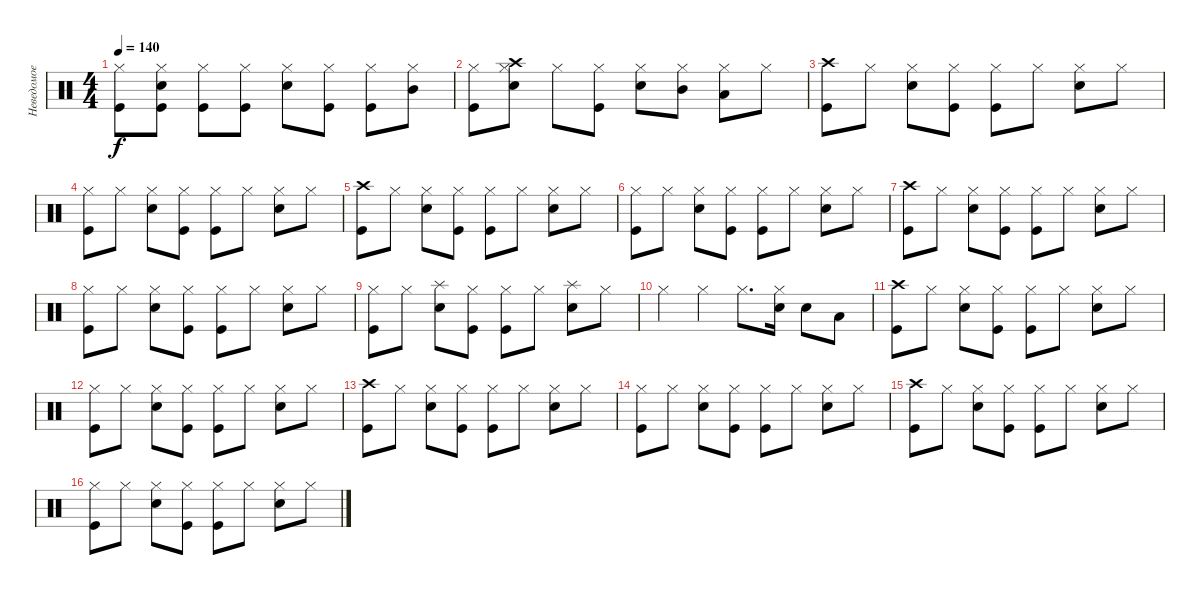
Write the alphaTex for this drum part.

\track ("Неведомое существо" "Неведомое ") {instrument percussion}
\staff {score}
\articulation defaults
\ts (4 4)
\tempo 140
\clef neutral
\ks c
("Hi-Hat (closed)" "Kick (hit)").8{dy f} ("Hi-Hat (closed)" "Snare (hit) 2" "Kick (hit)").8 ("Hi-Hat (closed)" "Kick (hit)").8 ("Hi-Hat (closed)" "Kick (hit)").8 ("Hi-Hat (closed)" "Snare (hit) 2").8 ("Hi-Hat (closed)" "Kick (hit)").8 ("Hi-Hat (closed)" "Kick (hit)").8 ("Hi-Hat (closed)" "Mid Tom (hit)").8 |
("Hi-Hat (closed)" "Kick (hit)").8 ("Hi-Hat (closed)" "Crash high (hit)" "Snare (hit) 2").8 "Hi-Hat (closed)".8 ("Hi-Hat (closed)" "Kick (hit)").8 ("Hi-Hat (closed)" "Snare (hit) 2").8 ("Hi-Hat (closed)" "Mid Tom (hit)").8 ("Hi-Hat (closed)" "Low Tom (hit)").8 "Hi-Hat (closed)".8 |
("Crash high (hit)" "Kick (hit)").8 "Hi-Hat (closed)".8 ("Hi-Hat (closed)" "Snare (hit) 2").8 ("Hi-Hat (closed)" "Kick (hit)").8 ("Hi-Hat (closed)" "Kick (hit)").8 "Hi-Hat (closed)".8 ("Hi-Hat (closed)" "Snare (hit) 2").8 "Hi-Hat (closed)".8 |
("Hi-Hat (closed)" "Kick (hit)").8 "Hi-Hat (closed)".8 ("Hi-Hat (closed)" "Snare (hit) 2").8 ("Hi-Hat (closed)" "Kick (hit)").8 ("Hi-Hat (closed)" "Kick (hit)").8 "Hi-Hat (closed)".8 ("Hi-Hat (closed)" "Snare (hit) 2").8 "Hi-Hat (closed)".8 |
("Crash high (hit)" "Kick (hit)").8 "Hi-Hat (closed)".8 ("Hi-Hat (closed)" "Snare (hit) 2").8 ("Hi-Hat (closed)" "Kick (hit)").8 ("Hi-Hat (closed)" "Kick (hit)").8 "Hi-Hat (closed)".8 ("Hi-Hat (closed)" "Snare (hit) 2").8 "Hi-Hat (closed)".8 |
("Hi-Hat (closed)" "Kick (hit)").8 "Hi-Hat (closed)".8 ("Hi-Hat (closed)" "Snare (hit) 2").8 ("Hi-Hat (closed)" "Kick (hit)").8 ("Hi-Hat (closed)" "Kick (hit)").8 "Hi-Hat (closed)".8 ("Hi-Hat (closed)" "Snare (hit) 2").8 "Hi-Hat (closed)".8 |
("Crash high (hit)" "Kick (hit)").8 "Hi-Hat (closed)".8 ("Hi-Hat (closed)" "Snare (hit) 2").8 ("Hi-Hat (closed)" "Kick (hit)").8 ("Hi-Hat (closed)" "Kick (hit)").8 "Hi-Hat (closed)".8 ("Hi-Hat (closed)" "Snare (hit) 2").8 "Hi-Hat (closed)".8 |
("Hi-Hat (closed)" "Kick (hit)").8 "Hi-Hat (closed)".8 ("Hi-Hat (closed)" "Snare (hit) 2").8 ("Hi-Hat (closed)" "Kick (hit)").8 ("Hi-Hat (closed)" "Kick (hit)").8 "Hi-Hat (closed)".8 ("Hi-Hat (closed)" "Snare (hit) 2").8 "Hi-Hat (closed)".8 |
("Hi-Hat (closed)" "Kick (hit)").8 "Hi-Hat (closed)".8 ("Splash (hit)" "Snare (hit) 2").8 ("Hi-Hat (closed)" "Kick (hit)").8 ("Hi-Hat (closed)" "Kick (hit)").8 "Hi-Hat (closed)".8 ("Splash (hit)" "Snare (hit) 2").8 "Hi-Hat (closed)".8 |
"Hi-Hat (closed)".4 "Hi-Hat (closed)".4 "Hi-Hat (closed)".8{d} ("Hi-Hat (closed)" "Snare (hit) 2").16 "Snare (hit) 2".8 "Low Tom (hit)".8 |
("Crash high (hit)" "Kick (hit)").8 "Hi-Hat (closed)".8 ("Hi-Hat (closed)" "Snare (hit) 2").8 ("Hi-Hat (closed)" "Kick (hit)").8 ("Hi-Hat (closed)" "Kick (hit)").8 "Hi-Hat (closed)".8 ("Hi-Hat (closed)" "Snare (hit) 2").8 "Hi-Hat (closed)".8 |
("Hi-Hat (closed)" "Kick (hit)").8 "Hi-Hat (closed)".8 ("Hi-Hat (closed)" "Snare (hit) 2").8 ("Hi-Hat (closed)" "Kick (hit)").8 ("Hi-Hat (closed)" "Kick (hit)").8 "Hi-Hat (closed)".8 ("Hi-Hat (closed)" "Snare (hit) 2").8 "Hi-Hat (closed)".8 |
("Crash high (hit)" "Kick (hit)").8 "Hi-Hat (closed)".8 ("Hi-Hat (closed)" "Snare (hit) 2").8 ("Hi-Hat (closed)" "Kick (hit)").8 ("Hi-Hat (closed)" "Kick (hit)").8 "Hi-Hat (closed)".8 ("Hi-Hat (closed)" "Snare (hit) 2").8 "Hi-Hat (closed)".8 |
("Hi-Hat (closed)" "Kick (hit)").8 "Hi-Hat (closed)".8 ("Hi-Hat (closed)" "Snare (hit) 2").8 ("Hi-Hat (closed)" "Kick (hit)").8 ("Hi-Hat (closed)" "Kick (hit)").8 "Hi-Hat (closed)".8 ("Hi-Hat (closed)" "Snare (hit) 2").8 "Hi-Hat (closed)".8 |
("Crash high (hit)" "Kick (hit)").8 "Hi-Hat (closed)".8 ("Hi-Hat (closed)" "Snare (hit) 2").8 ("Hi-Hat (closed)" "Kick (hit)").8 ("Hi-Hat (closed)" "Kick (hit)").8 "Hi-Hat (closed)".8 ("Hi-Hat (closed)" "Snare (hit) 2").8 "Hi-Hat (closed)".8 |
("Hi-Hat (closed)" "Kick (hit)").8 "Hi-Hat (closed)".8 ("Hi-Hat (closed)" "Snare (hit) 2").8 ("Hi-Hat (closed)" "Kick (hit)").8 ("Hi-Hat (closed)" "Kick (hit)").8 "Hi-Hat (closed)".8 ("Hi-Hat (closed)" "Snare (hit) 2").8 "Hi-Hat (closed)".8
